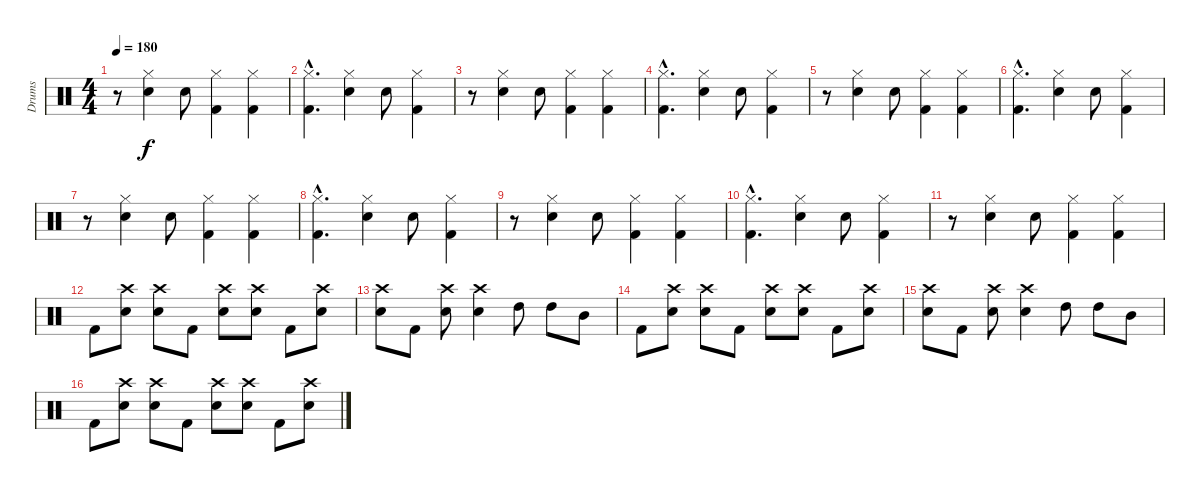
\track ("Drums" "Drums") {instrument percussion}
\staff {score}
\articulation defaults
\ts (4 4)
\tempo 180
\clef neutral
\ks c
r.8{dy f} ("Hi-Hat (closed)" "Snare (hit) 2").4 "Snare (hit) 2".8 ("Hi-Hat (closed)" "Kick (hit) 2").4 ("Hi-Hat (closed)" "Kick (hit) 2").4 |
("Hi-Hat (closed)"{hac} "Kick (hit) 2"{hac}).4{d} ("Hi-Hat (closed)" "Snare (hit) 2").4 "Snare (hit) 2".8 ("Hi-Hat (closed)" "Kick (hit) 2").4 |
r.8 ("Hi-Hat (closed)" "Snare (hit) 2").4 "Snare (hit) 2".8 ("Hi-Hat (closed)" "Kick (hit) 2").4 ("Hi-Hat (closed)" "Kick (hit) 2").4 |
("Hi-Hat (closed)"{hac} "Kick (hit) 2"{hac}).4{d} ("Hi-Hat (closed)" "Snare (hit) 2").4 "Snare (hit) 2".8 ("Hi-Hat (closed)" "Kick (hit) 2").4 |
r.8 ("Hi-Hat (closed)" "Snare (hit) 2").4 "Snare (hit) 2".8 ("Hi-Hat (closed)" "Kick (hit) 2").4 ("Hi-Hat (closed)" "Kick (hit) 2").4 |
("Hi-Hat (closed)"{hac} "Kick (hit) 2"{hac}).4{d} ("Hi-Hat (closed)" "Snare (hit) 2").4 "Snare (hit) 2".8 ("Hi-Hat (closed)" "Kick (hit) 2").4 |
r.8 ("Hi-Hat (closed)" "Snare (hit) 2").4 "Snare (hit) 2".8 ("Hi-Hat (closed)" "Kick (hit) 2").4 ("Hi-Hat (closed)" "Kick (hit) 2").4 |
("Hi-Hat (closed)"{hac} "Kick (hit) 2"{hac}).4{d} ("Hi-Hat (closed)" "Snare (hit) 2").4 "Snare (hit) 2".8 ("Hi-Hat (closed)" "Kick (hit) 2").4 |
r.8 ("Hi-Hat (closed)" "Snare (hit) 2").4 "Snare (hit) 2".8 ("Hi-Hat (closed)" "Kick (hit) 2").4 ("Hi-Hat (closed)" "Kick (hit) 2").4 |
("Hi-Hat (closed)"{hac} "Kick (hit) 2"{hac}).4{d} ("Hi-Hat (closed)" "Snare (hit) 2").4 "Snare (hit) 2".8 ("Hi-Hat (closed)" "Kick (hit) 2").4 |
r.8 ("Hi-Hat (closed)" "Snare (hit) 2").4 "Snare (hit) 2".8 ("Hi-Hat (closed)" "Kick (hit) 2").4 ("Hi-Hat (closed)" "Kick (hit) 2").4 |
"Kick (hit) 2".8 ("Crash high (hit)" "Snare (hit) 2").8 ("Crash high (hit)" "Snare (hit) 2").8 "Kick (hit) 2".8 ("Crash high (hit)" "Snare (hit) 2").8 ("Crash high (hit)" "Snare (hit) 2").8 "Kick (hit) 2".8 ("Crash high (hit)" "Snare (hit) 2").8 |
("Crash high (hit)" "Snare (hit) 2").8 "Kick (hit) 2".8 ("Crash high (hit)" "Snare (hit) 2").8 ("Crash high (hit)" "Snare (hit) 2").4 "High Tom (hit)".8 "High Tom (hit)".8 "Mid Tom (hit)".8 |
"Kick (hit) 2".8 ("Crash high (hit)" "Snare (hit) 2").8 ("Crash high (hit)" "Snare (hit) 2").8 "Kick (hit) 2".8 ("Crash high (hit)" "Snare (hit) 2").8 ("Crash high (hit)" "Snare (hit) 2").8 "Kick (hit) 2".8 ("Crash high (hit)" "Snare (hit) 2").8 |
("Crash high (hit)" "Snare (hit) 2").8 "Kick (hit) 2".8 ("Crash high (hit)" "Snare (hit) 2").8 ("Crash high (hit)" "Snare (hit) 2").4 "High Tom (hit)".8 "High Tom (hit)".8 "Mid Tom (hit)".8 |
"Kick (hit) 2".8 ("Crash high (hit)" "Snare (hit) 2").8 ("Crash high (hit)" "Snare (hit) 2").8 "Kick (hit) 2".8 ("Crash high (hit)" "Snare (hit) 2").8 ("Crash high (hit)" "Snare (hit) 2").8 "Kick (hit) 2".8 ("Crash high (hit)" "Snare (hit) 2").8
